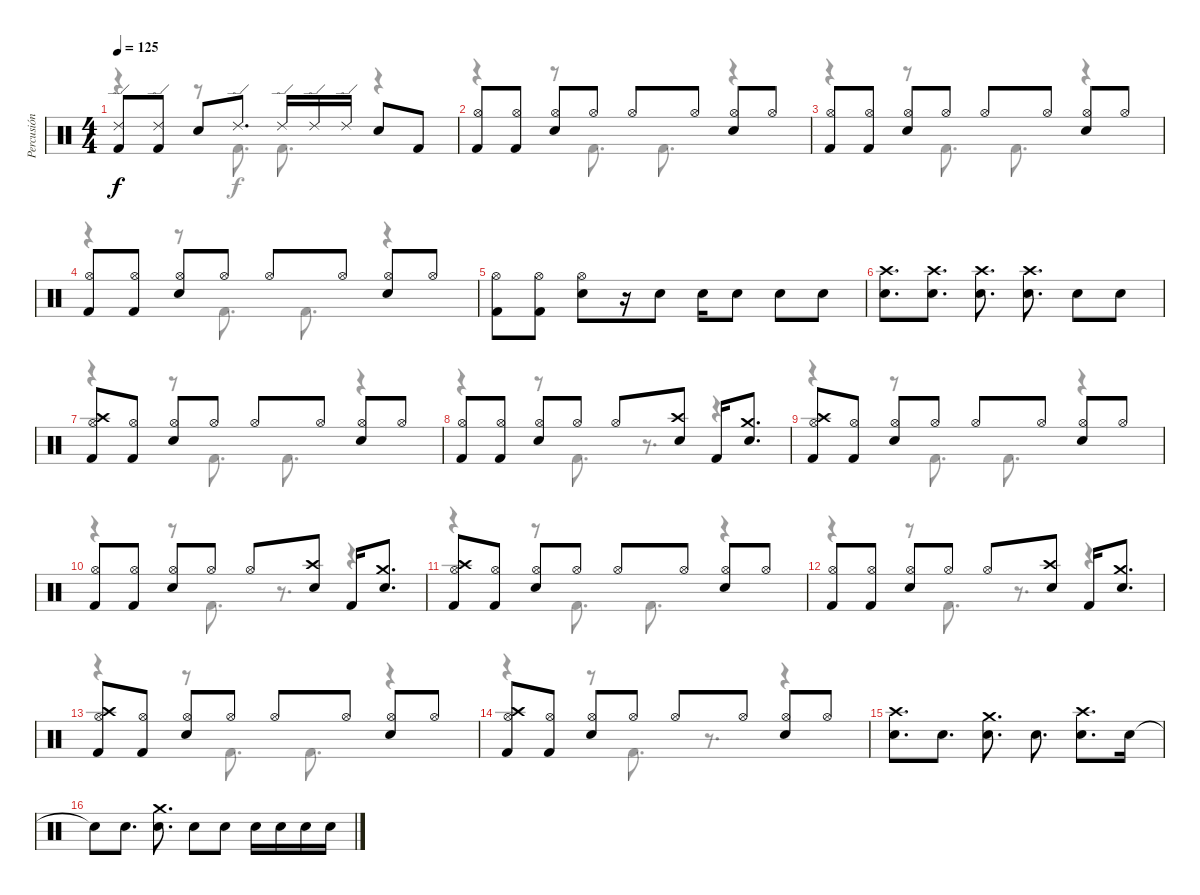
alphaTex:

\track ("Percusión" "Percusión") {instrument percussion}
\staff {score}
\articulation defaults
\voice
\ts (4 4)
\tempo 125
\clef neutral
\ks c
("Ride (edge) 2" "Kick (hit) 2").8{dy f} ("Ride (edge) 2" "Kick (hit) 2").8 "Electric Snare (hit)".8 "Ride (edge) 2".8{d} "Ride (edge) 2".16 "Ride (edge) 2".16 "Ride (edge) 2".16 "Electric Snare (hit)".8 "Kick (hit) 2".8 |
("Hi-Hat (open)" "Kick (hit) 2").8 ("Hi-Hat (open)" "Kick (hit) 2").8 ("Hi-Hat (open)" "Electric Snare (hit)").8 "Hi-Hat (open)".8 "Hi-Hat (open)".8 "Hi-Hat (open)".8 ("Hi-Hat (open)" "Electric Snare (hit)").8 "Hi-Hat (open)".8 |
("Hi-Hat (open)" "Kick (hit) 2").8 ("Hi-Hat (open)" "Kick (hit) 2").8 ("Hi-Hat (open)" "Electric Snare (hit)").8 "Hi-Hat (open)".8 "Hi-Hat (open)".8 "Hi-Hat (open)".8 ("Hi-Hat (open)" "Electric Snare (hit)").8 "Hi-Hat (open)".8 |
("Hi-Hat (open)" "Kick (hit) 2").8 ("Hi-Hat (open)" "Kick (hit) 2").8 ("Hi-Hat (open)" "Electric Snare (hit)").8 "Hi-Hat (open)".8 "Hi-Hat (open)".8 "Hi-Hat (open)".8 ("Hi-Hat (open)" "Electric Snare (hit)").8 "Hi-Hat (open)".8 |
("Hi-Hat (open)" "Kick (hit) 2").8 ("Hi-Hat (open)" "Kick (hit) 2").8 ("Hi-Hat (open)" "Electric Snare (hit)").8 r.16 "Electric Snare (hit)".8 "Electric Snare (hit)".16 "Electric Snare (hit)".8 "Electric Snare (hit)".8 "Electric Snare (hit)".8 |
("Crash high (hit)" "Electric Snare (hit)").8{d} ("Crash high (hit)" "Electric Snare (hit)").8{d} ("Crash high (hit)" "Electric Snare (hit)").8{d} ("Crash high (hit)" "Electric Snare (hit)").8{d} "Electric Snare (hit)".8 "Electric Snare (hit)".8 |
("Hi-Hat (open)" "Kick (hit) 2" "Crash high (hit)").8 ("Hi-Hat (open)" "Kick (hit) 2").8 ("Hi-Hat (open)" "Electric Snare (hit)").8 "Hi-Hat (open)".8 "Hi-Hat (open)".8 "Hi-Hat (open)".8 ("Hi-Hat (open)" "Electric Snare (hit)").8 "Hi-Hat (open)".8 |
("Hi-Hat (open)" "Kick (hit) 2").8 ("Hi-Hat (open)" "Kick (hit) 2").8 ("Hi-Hat (open)" "Electric Snare (hit)").8 "Hi-Hat (open)".8 "Hi-Hat (open)".8 ("Crash high (hit)" "Electric Snare (hit)").8 "Kick (hit) 2".16 ("Crash medium (hit)" "Electric Snare (hit)").8{d} |
("Hi-Hat (open)" "Kick (hit) 2" "Crash high (hit)").8 ("Hi-Hat (open)" "Kick (hit) 2").8 ("Hi-Hat (open)" "Electric Snare (hit)").8 "Hi-Hat (open)".8 "Hi-Hat (open)".8 "Hi-Hat (open)".8 ("Hi-Hat (open)" "Electric Snare (hit)").8 "Hi-Hat (open)".8 |
("Hi-Hat (open)" "Kick (hit) 2").8 ("Hi-Hat (open)" "Kick (hit) 2").8 ("Hi-Hat (open)" "Electric Snare (hit)").8 "Hi-Hat (open)".8 "Hi-Hat (open)".8 ("Crash high (hit)" "Electric Snare (hit)").8 "Kick (hit) 2".16 ("Crash medium (hit)" "Electric Snare (hit)").8{d} |
("Hi-Hat (open)" "Kick (hit) 2" "Crash high (hit)").8 ("Hi-Hat (open)" "Kick (hit) 2").8 ("Hi-Hat (open)" "Electric Snare (hit)").8 "Hi-Hat (open)".8 "Hi-Hat (open)".8 "Hi-Hat (open)".8 ("Hi-Hat (open)" "Electric Snare (hit)").8 "Hi-Hat (open)".8 |
("Hi-Hat (open)" "Kick (hit) 2").8 ("Hi-Hat (open)" "Kick (hit) 2").8 ("Hi-Hat (open)" "Electric Snare (hit)").8 "Hi-Hat (open)".8 "Hi-Hat (open)".8 ("Crash high (hit)" "Electric Snare (hit)").8 "Kick (hit) 2".16 ("Crash medium (hit)" "Electric Snare (hit)").8{d} |
("Hi-Hat (open)" "Kick (hit) 2" "Crash high (hit)").8 ("Hi-Hat (open)" "Kick (hit) 2").8 ("Hi-Hat (open)" "Electric Snare (hit)").8 "Hi-Hat (open)".8 "Hi-Hat (open)".8 "Hi-Hat (open)".8 ("Hi-Hat (open)" "Electric Snare (hit)").8 "Hi-Hat (open)".8 |
("Hi-Hat (open)" "Kick (hit) 2" "Crash high (hit)").8 ("Hi-Hat (open)" "Kick (hit) 2").8 ("Hi-Hat (open)" "Electric Snare (hit)").8 "Hi-Hat (open)".8 "Hi-Hat (open)".8 "Hi-Hat (open)".8 ("Hi-Hat (open)" "Electric Snare (hit)").8 "Hi-Hat (open)".8 |
("Crash high (hit)" "Electric Snare (hit)").8{d} "Electric Snare (hit)".8{d} ("Crash medium (hit)" "Electric Snare (hit)").8{d} "Electric Snare (hit)".8{d} ("Crash high (hit)" "Electric Snare (hit)").8{d} "Electric Snare (hit)".16 |
"Snare (hit)"{t}.8 "Electric Snare (hit)".8{d} ("Crash medium (hit)" "Electric Snare (hit)").8{d} "Electric Snare (hit)".8 "Electric Snare (hit)".8 "Electric Snare (hit)".16 "Electric Snare (hit)".16 "Electric Snare (hit)".16 "Electric Snare (hit)".16
\voice
\clef neutral
\ottava regular
\simile none
\ks c
r.4{dy f} r.8 "Kick (hit) 2".8{d} "Kick (hit) 2".8{d} r.4 |
r.4 r.8 "Kick (hit) 2".8{d} "Kick (hit) 2".8{d} r.4 |
r.4 r.8 "Kick (hit) 2".8{d} "Kick (hit) 2".8{d} r.4 |
r.4 r.8 "Kick (hit) 2".8{d} "Kick (hit) 2".8{d} r.4 |
|
|
r.4 r.8 "Kick (hit) 2".8{d} "Kick (hit) 2".8{d} r.4 |
r.4 r.8 "Kick (hit) 2".8{d} r.8{d} r.4 |
r.4 r.8 "Kick (hit) 2".8{d} "Kick (hit) 2".8{d} r.4 |
r.4 r.8 "Kick (hit) 2".8{d} r.8{d} r.4 |
r.4 r.8 "Kick (hit) 2".8{d} "Kick (hit) 2".8{d} r.4 |
r.4 r.8 "Kick (hit) 2".8{d} r.8{d} r.4 |
r.4 r.8 "Kick (hit) 2".8{d} "Kick (hit) 2".8{d} r.4 |
r.4 r.8 "Kick (hit) 2".8{d} r.8{d} r.4 |
|
